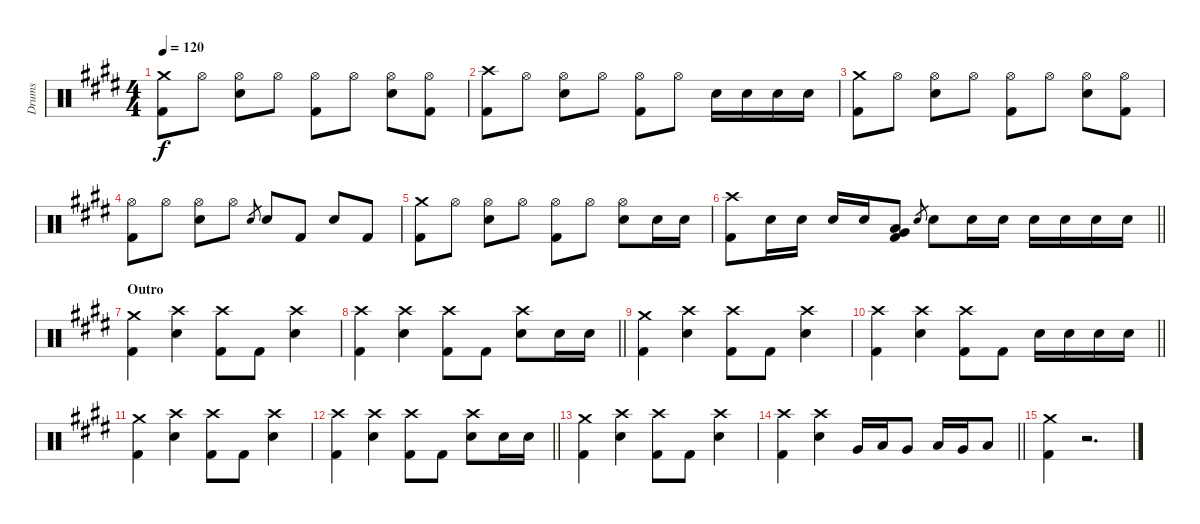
\track ("Drums" "Drums") {instrument percussion}
\staff {score}
\articulation defaults
\ts (4 4)
\tempo 120
\clef neutral
\ks e
("Crash medium (hit)" "Kick (hit) 2").8{dy f} "Hi-Hat (open)".8 ("Hi-Hat (open)" "Electric Snare (hit)").8 "Hi-Hat (open)".8 ("Hi-Hat (open)" "Kick (hit) 2").8 "Hi-Hat (open)".8 ("Hi-Hat (open)" "Electric Snare (hit)").8 ("Hi-Hat (open)" "Kick (hit) 2").8 |
("Crash high (hit)" "Kick (hit) 2").8 "Hi-Hat (open)".8 ("Hi-Hat (open)" "Electric Snare (hit)").8 "Hi-Hat (open)".8 ("Hi-Hat (open)" "Kick (hit) 2").8 "Hi-Hat (open)".8 "Electric Snare (hit)".16 "Electric Snare (hit)".16 "Electric Snare (hit)".16 "Electric Snare (hit)".16 |
("Crash medium (hit)" "Kick (hit) 2").8 "Hi-Hat (open)".8 ("Hi-Hat (open)" "Electric Snare (hit)").8 "Hi-Hat (open)".8 ("Hi-Hat (open)" "Kick (hit) 2").8 "Hi-Hat (open)".8 ("Hi-Hat (open)" "Electric Snare (hit)").8 ("Hi-Hat (open)" "Kick (hit) 2").8 |
("Hi-Hat (open)" "Kick (hit) 2").8 "Hi-Hat (open)".8 ("Hi-Hat (open)" "Electric Snare (hit)").8 "Hi-Hat (open)".8 "Electric Snare (hit)".8{gr} "Electric Snare (hit)".8 "Kick (hit) 2".8 "Electric Snare (hit)".8 "Kick (hit) 2".8 |
("Crash medium (hit)" "Kick (hit) 2").8 "Hi-Hat (open)".8 ("Hi-Hat (open)" "Electric Snare (hit)").8 "Hi-Hat (open)".8 ("Hi-Hat (open)" "Kick (hit) 2").8 "Hi-Hat (open)".8 ("Hi-Hat (open)" "Electric Snare (hit)").8 "Electric Snare (hit)".16 "Electric Snare (hit)".16 |
\barLineRight lightlight
("Crash high (hit)" "Kick (hit) 2").8 "Electric Snare (hit)".16 "Electric Snare (hit)".16 "Electric Snare (hit)".16 "Electric Snare (hit)".16 ("Very Low Tom (hit)" "Low Floor Tom (hit)" "Kick (hit) 2").8 "Electric Snare (hit)".8{gr} "Electric Snare (hit)".8 "Electric Snare (hit)".16 "Electric Snare (hit)".16 "Electric Snare (hit)".16 "Electric Snare (hit)".16 "Electric Snare (hit)".16 "Electric Snare (hit)".16 |
\section ("" "Outro")
("Crash medium (hit)" "Kick (hit) 2").4 ("Crash high (hit)" "Electric Snare (hit)").4 ("Crash high (hit)" "Kick (hit) 2").8 "Kick (hit) 2".8 ("Crash high (hit)" "Electric Snare (hit)").4 |
\barLineRight lightlight
("Crash high (hit)" "Kick (hit) 2").4 ("Crash high (hit)" "Electric Snare (hit)").4 ("Crash high (hit)" "Kick (hit) 2").8 "Kick (hit) 2".8 ("Crash high (hit)" "Electric Snare (hit)").8 "Electric Snare (hit)".16 "Electric Snare (hit)".16 |
("Crash medium (hit)" "Kick (hit) 2").4 ("Crash high (hit)" "Electric Snare (hit)").4 ("Crash high (hit)" "Kick (hit) 2").8 "Kick (hit) 2".8 ("Crash high (hit)" "Electric Snare (hit)").4 |
\barLineRight lightlight
("Crash high (hit)" "Kick (hit) 2").4 ("Crash high (hit)" "Electric Snare (hit)").4 ("Crash high (hit)" "Kick (hit) 2").8 "Kick (hit) 2".8 "Electric Snare (hit)".16 "Electric Snare (hit)".16 "Electric Snare (hit)".16 "Electric Snare (hit)".16 |
("Crash medium (hit)" "Kick (hit) 2").4 ("Crash high (hit)" "Electric Snare (hit)").4 ("Crash high (hit)" "Kick (hit) 2").8 "Kick (hit) 2".8 ("Crash high (hit)" "Electric Snare (hit)").4 |
\barLineRight lightlight
("Crash high (hit)" "Kick (hit) 2").4 ("Crash high (hit)" "Electric Snare (hit)").4 ("Crash high (hit)" "Kick (hit) 2").8 "Kick (hit) 2".8 ("Crash high (hit)" "Electric Snare (hit)").8 "Electric Snare (hit)".16 "Electric Snare (hit)".16 |
("Crash medium (hit)" "Kick (hit) 2").4 ("Crash high (hit)" "Electric Snare (hit)").4 ("Crash high (hit)" "Kick (hit) 2").8 "Kick (hit) 2".8 ("Crash high (hit)" "Electric Snare (hit)").4 |
\barLineRight lightlight
("Crash high (hit)" "Kick (hit) 2").4 ("Crash high (hit)" "Electric Snare (hit)").4 "Very Low Tom (hit)".16 "Low Tom (hit)".16 "Very Low Tom (hit)".8 "Low Floor Tom (hit)".16 "Very Low Tom (hit)".16 "Low Floor Tom (hit)".8 |
("Crash medium (hit)" "Kick (hit) 2").4 r.2{d}
